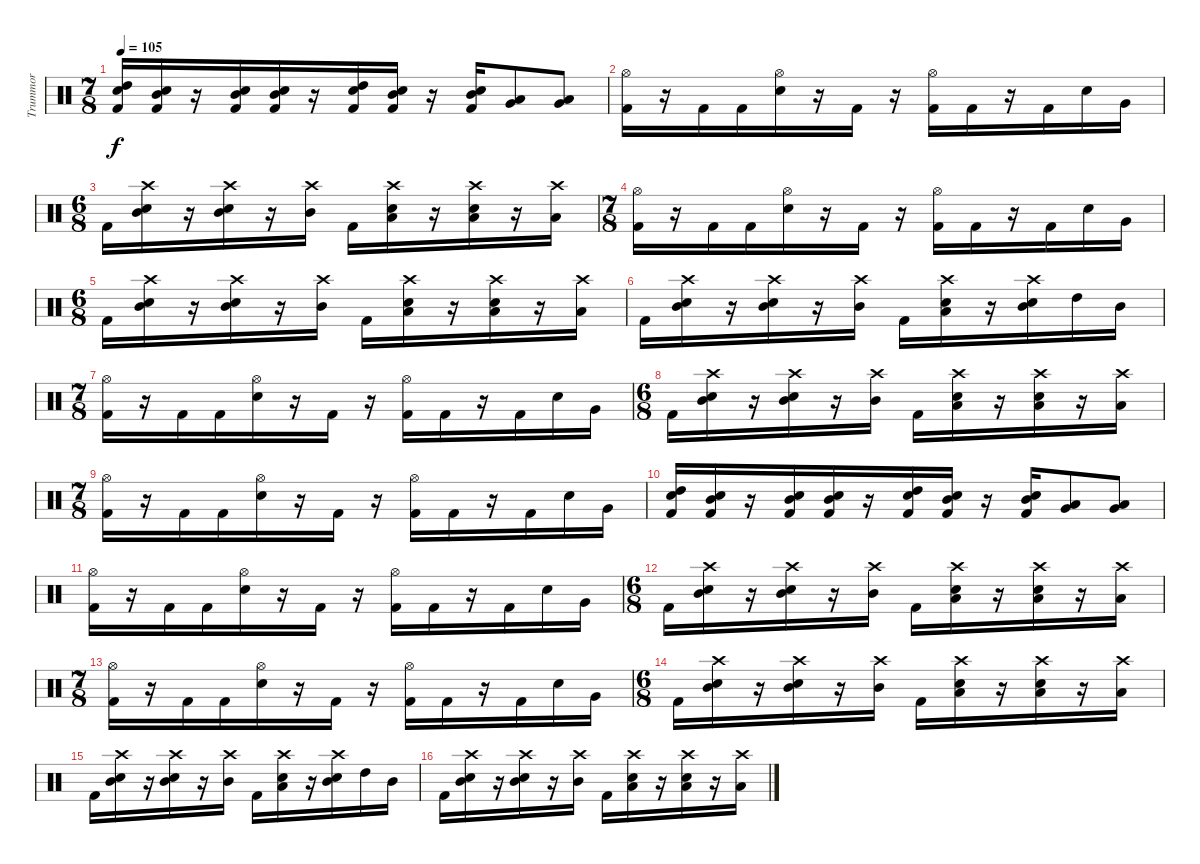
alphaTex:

\track ("Trummor" "Trummor") {instrument percussion}
\staff {score}
\articulation defaults
\ts (7 8)
\tempo 105
\clef neutral
\ks c
("High Tom (hit)" "Snare (hit) 2" "Kick (hit) 2").16{dy f} ("Mid Tom (hit)" "Snare (hit) 2" "Kick (hit) 2").16 r.16 ("Mid Tom (hit)" "Snare (hit) 2" "Kick (hit) 2").16 ("Mid Tom (hit)" "Snare (hit) 2" "Kick (hit) 2").16 r.16 ("High Tom (hit)" "Snare (hit) 2" "Kick (hit) 2").16 ("Mid Tom (hit)" "Snare (hit) 2" "Kick (hit) 2").16 r.16 ("Mid Tom (hit)" "Snare (hit) 2" "Kick (hit) 2").16 ("Very Low Tom (hit)" "Low Floor Tom (hit)").8 ("Very Low Tom (hit)" "Low Floor Tom (hit)").8 |
("Hi-Hat (open)" "Kick (hit) 2").16 r.16 "Kick (hit) 2".16 "Kick (hit) 2".16 ("Hi-Hat (open)" "Snare (hit) 2").16 r.16 "Kick (hit) 2".16 r.16 ("Hi-Hat (open)" "Kick (hit) 2").16 "Kick (hit) 2".16 r.16 "Kick (hit) 2".16 "Snare (hit) 2".16 "Very Low Tom (hit)".16 |
\ts (6 8)
"Kick (hit) 2".16 ("Crash high (hit)" "Mid Tom (hit)" "Snare (hit) 2").16 r.16 ("Crash high (hit)" "Mid Tom (hit)" "Snare (hit) 2").16 r.16 ("Crash high (hit)" "Mid Tom (hit)").16 "Kick (hit) 2".16 ("Crash high (hit)" "Low Tom (hit)" "Snare (hit) 2").16 r.16 ("Crash high (hit)" "Low Tom (hit)" "Snare (hit) 2").16 r.16 ("Crash high (hit)" "Low Tom (hit)").16 |
\ts (7 8)
("Hi-Hat (open)" "Kick (hit) 2").16 r.16 "Kick (hit) 2".16 "Kick (hit) 2".16 ("Hi-Hat (open)" "Snare (hit) 2").16 r.16 "Kick (hit) 2".16 r.16 ("Hi-Hat (open)" "Kick (hit) 2").16 "Kick (hit) 2".16 r.16 "Kick (hit) 2".16 "Snare (hit) 2".16 "Very Low Tom (hit)".16 |
\ts (6 8)
"Kick (hit) 2".16 ("Crash high (hit)" "Mid Tom (hit)" "Snare (hit) 2").16 r.16 ("Crash high (hit)" "Mid Tom (hit)" "Snare (hit) 2").16 r.16 ("Crash high (hit)" "Mid Tom (hit)").16 "Kick (hit) 2".16 ("Crash high (hit)" "Low Tom (hit)" "Snare (hit) 2").16 r.16 ("Crash high (hit)" "Low Tom (hit)" "Snare (hit) 2").16 r.16 ("Crash high (hit)" "Low Tom (hit)").16 |
"Kick (hit) 2".16 ("Crash high (hit)" "Mid Tom (hit)" "Snare (hit) 2").16 r.16 ("Crash high (hit)" "Mid Tom (hit)" "Snare (hit) 2").16 r.16 ("Crash high (hit)" "Mid Tom (hit)").16 "Kick (hit) 2".16 ("Crash high (hit)" "Low Tom (hit)" "Snare (hit) 2").16 r.16 ("Crash high (hit)" "Mid Tom (hit)" "Snare (hit) 2").16 "High Tom (hit)".16 "Mid Tom (hit)".16 |
\ts (7 8)
("Hi-Hat (open)" "Kick (hit) 2").16 r.16 "Kick (hit) 2".16 "Kick (hit) 2".16 ("Hi-Hat (open)" "Snare (hit) 2").16 r.16 "Kick (hit) 2".16 r.16 ("Hi-Hat (open)" "Kick (hit) 2").16 "Kick (hit) 2".16 r.16 "Kick (hit) 2".16 "Snare (hit) 2".16 "Very Low Tom (hit)".16 |
\ts (6 8)
"Kick (hit) 2".16 ("Crash high (hit)" "Mid Tom (hit)" "Snare (hit) 2").16 r.16 ("Crash high (hit)" "Mid Tom (hit)" "Snare (hit) 2").16 r.16 ("Crash high (hit)" "Mid Tom (hit)").16 "Kick (hit) 2".16 ("Crash high (hit)" "Low Tom (hit)" "Snare (hit) 2").16 r.16 ("Crash high (hit)" "Low Tom (hit)" "Snare (hit) 2").16 r.16 ("Crash high (hit)" "Low Tom (hit)").16 |
\ts (7 8)
("Hi-Hat (open)" "Kick (hit) 2").16 r.16 "Kick (hit) 2".16 "Kick (hit) 2".16 ("Hi-Hat (open)" "Snare (hit) 2").16 r.16 "Kick (hit) 2".16 r.16 ("Hi-Hat (open)" "Kick (hit) 2").16 "Kick (hit) 2".16 r.16 "Kick (hit) 2".16 "Snare (hit) 2".16 "Very Low Tom (hit)".16 |
("High Tom (hit)" "Snare (hit) 2" "Kick (hit) 2").16 ("Mid Tom (hit)" "Snare (hit) 2" "Kick (hit) 2").16 r.16 ("Mid Tom (hit)" "Snare (hit) 2" "Kick (hit) 2").16 ("Mid Tom (hit)" "Snare (hit) 2" "Kick (hit) 2").16 r.16 ("High Tom (hit)" "Snare (hit) 2" "Kick (hit) 2").16 ("Mid Tom (hit)" "Snare (hit) 2" "Kick (hit) 2").16 r.16 ("Mid Tom (hit)" "Snare (hit) 2" "Kick (hit) 2").16 ("Very Low Tom (hit)" "Low Floor Tom (hit)").8 ("Very Low Tom (hit)" "Low Floor Tom (hit)").8 |
("Hi-Hat (open)" "Kick (hit) 2").16 r.16 "Kick (hit) 2".16 "Kick (hit) 2".16 ("Hi-Hat (open)" "Snare (hit) 2").16 r.16 "Kick (hit) 2".16 r.16 ("Hi-Hat (open)" "Kick (hit) 2").16 "Kick (hit) 2".16 r.16 "Kick (hit) 2".16 "Snare (hit) 2".16 "Very Low Tom (hit)".16 |
\ts (6 8)
"Kick (hit) 2".16 ("Crash high (hit)" "Mid Tom (hit)" "Snare (hit) 2").16 r.16 ("Crash high (hit)" "Mid Tom (hit)" "Snare (hit) 2").16 r.16 ("Crash high (hit)" "Mid Tom (hit)").16 "Kick (hit) 2".16 ("Crash high (hit)" "Low Tom (hit)" "Snare (hit) 2").16 r.16 ("Crash high (hit)" "Low Tom (hit)" "Snare (hit) 2").16 r.16 ("Crash high (hit)" "Low Tom (hit)").16 |
\ts (7 8)
("Hi-Hat (open)" "Kick (hit) 2").16 r.16 "Kick (hit) 2".16 "Kick (hit) 2".16 ("Hi-Hat (open)" "Snare (hit) 2").16 r.16 "Kick (hit) 2".16 r.16 ("Hi-Hat (open)" "Kick (hit) 2").16 "Kick (hit) 2".16 r.16 "Kick (hit) 2".16 "Snare (hit) 2".16 "Very Low Tom (hit)".16 |
\ts (6 8)
"Kick (hit) 2".16 ("Crash high (hit)" "Mid Tom (hit)" "Snare (hit) 2").16 r.16 ("Crash high (hit)" "Mid Tom (hit)" "Snare (hit) 2").16 r.16 ("Crash high (hit)" "Mid Tom (hit)").16 "Kick (hit) 2".16 ("Crash high (hit)" "Low Tom (hit)" "Snare (hit) 2").16 r.16 ("Crash high (hit)" "Low Tom (hit)" "Snare (hit) 2").16 r.16 ("Crash high (hit)" "Low Tom (hit)").16 |
"Kick (hit) 2".16 ("Crash high (hit)" "Mid Tom (hit)" "Snare (hit) 2").16 r.16 ("Crash high (hit)" "Mid Tom (hit)" "Snare (hit) 2").16 r.16 ("Crash high (hit)" "Mid Tom (hit)").16 "Kick (hit) 2".16 ("Crash high (hit)" "Low Tom (hit)" "Snare (hit) 2").16 r.16 ("Crash high (hit)" "Mid Tom (hit)" "Snare (hit) 2").16 "High Tom (hit)".16 "Mid Tom (hit)".16 |
"Kick (hit) 2".16 ("Crash high (hit)" "Mid Tom (hit)" "Snare (hit) 2").16 r.16 ("Crash high (hit)" "Mid Tom (hit)" "Snare (hit) 2").16 r.16 ("Crash high (hit)" "Mid Tom (hit)").16 "Kick (hit) 2".16 ("Crash high (hit)" "Low Tom (hit)" "Snare (hit) 2").16 r.16 ("Crash high (hit)" "Low Tom (hit)" "Snare (hit) 2").16 r.16 ("Crash high (hit)" "Low Tom (hit)").16
